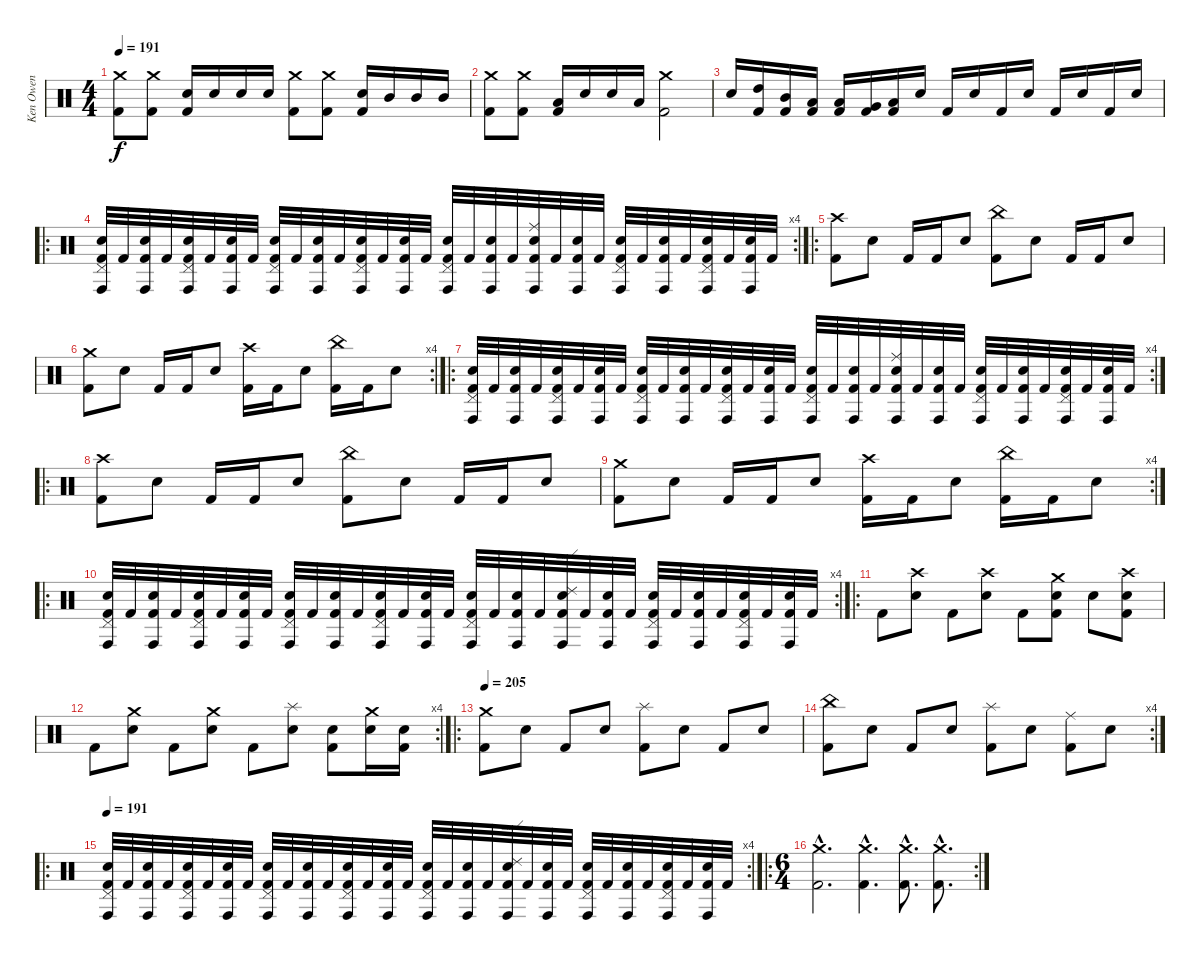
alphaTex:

\track ("Ken Owen" "Ken Owen") {instrument percussion}
\staff {score}
\articulation defaults
\ts (4 4)
\tempo 191
\clef neutral
\ks c
("Crash medium (hit)" "Kick (hit) 2").8{dy f} ("Crash medium (hit)" "Kick (hit) 2").8 ("Electric Snare (hit)" "Kick (hit) 2").16 "Electric Snare (hit)".16 "Electric Snare (hit)".16 "Electric Snare (hit)".16 ("Crash medium (hit)" "Kick (hit) 2").8 ("Crash medium (hit)" "Kick (hit) 2").8 ("Electric Snare (hit)" "Kick (hit) 2").16 "Mid Tom (hit)".16 "Mid Tom (hit)".16 "Mid Tom (hit)".16 |
("Crash medium (hit)" "Kick (hit) 2").8 ("Crash medium (hit)" "Kick (hit) 2").8 ("Low Tom (hit)" "Kick (hit) 2").16 "Electric Snare (hit)".16 "Electric Snare (hit)".16 "Low Tom (hit)".16 ("Crash medium (hit)" "Kick (hit) 2").2 |
"Electric Snare (hit)".16 ("High Tom (hit)" "Kick (hit) 2").16 ("Mid Tom (hit)" "Kick (hit) 2").16 ("Low Tom (hit)" "Kick (hit) 2").16 ("Low Tom (hit)" "Kick (hit) 2").16 ("Very Low Tom (hit)" "Kick (hit) 2").16 ("Low Floor Tom (hit)" "Kick (hit) 2").16 "Electric Snare (hit)".16 "Kick (hit) 2".16 "Electric Snare (hit)".16 "Kick (hit) 2".16 "Electric Snare (hit)".16 "Kick (hit) 2".16 "Electric Snare (hit)".16 "Kick (hit) 2".16 "Electric Snare (hit)".16 |
\ro
\rc 4
("Pedal Hi-Hat (hit)" "Electric Snare (hit)" "Conga high (hit)" "Kick (hit) 2").32 "Kick (hit) 2".32 ("Electric Snare (hit)" "Conga high (hit)" "Kick (hit) 2").32 "Kick (hit) 2".32 ("Pedal Hi-Hat (hit)" "Electric Snare (hit)" "Conga high (hit)" "Kick (hit) 2").32 "Kick (hit) 2".32 ("Electric Snare (hit)" "Conga high (hit)" "Kick (hit) 2").32 "Kick (hit) 2".32 ("Pedal Hi-Hat (hit)" "Electric Snare (hit)" "Conga high (hit)" "Kick (hit) 2").32 "Kick (hit) 2".32 ("Electric Snare (hit)" "Conga high (hit)" "Kick (hit) 2").32 "Kick (hit) 2".32 ("Pedal Hi-Hat (hit)" "Electric Snare (hit)" "Conga high (hit)" "Kick (hit) 2").32 "Kick (hit) 2".32 ("Electric Snare (hit)" "Conga high (hit)" "Kick (hit) 2").32 "Kick (hit) 2".32 ("Pedal Hi-Hat (hit)" "Electric Snare (hit)" "Conga high (hit)" "Kick (hit) 2").32 "Kick (hit) 2".32 ("Electric Snare (hit)" "Conga high (hit)" "Kick (hit) 2").32 "Kick (hit) 2".32 ("Ride (middle)" "Electric Snare (hit)" "Conga high (hit)" "Kick (hit) 2").32 "Kick (hit) 2".32 ("Electric Snare (hit)" "Conga high (hit)" "Kick (hit) 2").32 "Kick (hit) 2".32 ("Pedal Hi-Hat (hit)" "Electric Snare (hit)" "Conga high (hit)" "Kick (hit) 2").32 "Kick (hit) 2".32 ("Electric Snare (hit)" "Conga high (hit)" "Kick (hit) 2").32 "Kick (hit) 2".32 ("Pedal Hi-Hat (hit)" "Electric Snare (hit)" "Conga high (hit)" "Kick (hit) 2").32 "Kick (hit) 2".32 ("Electric Snare (hit)" "Conga high (hit)" "Kick (hit) 2").32 "Kick (hit) 2".32 |
\ro
("Crash high (hit)" "Kick (hit) 2").8 "Electric Snare (hit)".8 "Kick (hit) 2".16 "Kick (hit) 2".16 "Electric Snare (hit)".8 ("China (hit)" "Kick (hit) 2").8 "Electric Snare (hit)".8 "Kick (hit) 2".16 "Kick (hit) 2".16 "Electric Snare (hit)".8 |
\rc 4
("Crash medium (hit)" "Kick (hit) 2").8 "Electric Snare (hit)".8 "Kick (hit) 2".16 "Kick (hit) 2".16 "Electric Snare (hit)".8 ("Crash high (hit)" "Kick (hit) 2").16 "Kick (hit) 2".16 "Electric Snare (hit)".8 ("China (hit)" "Kick (hit) 2").16 "Kick (hit) 2".16 "Electric Snare (hit)".8 |
\ro
\rc 4
("Pedal Hi-Hat (hit)" "Electric Snare (hit)" "Conga high (hit)" "Kick (hit) 2").32 "Kick (hit) 2".32 ("Electric Snare (hit)" "Conga high (hit)" "Kick (hit) 2").32 "Kick (hit) 2".32 ("Pedal Hi-Hat (hit)" "Electric Snare (hit)" "Conga high (hit)" "Kick (hit) 2").32 "Kick (hit) 2".32 ("Electric Snare (hit)" "Conga high (hit)" "Kick (hit) 2").32 "Kick (hit) 2".32 ("Pedal Hi-Hat (hit)" "Electric Snare (hit)" "Conga high (hit)" "Kick (hit) 2").32 "Kick (hit) 2".32 ("Electric Snare (hit)" "Conga high (hit)" "Kick (hit) 2").32 "Kick (hit) 2".32 ("Pedal Hi-Hat (hit)" "Electric Snare (hit)" "Conga high (hit)" "Kick (hit) 2").32 "Kick (hit) 2".32 ("Electric Snare (hit)" "Conga high (hit)" "Kick (hit) 2").32 "Kick (hit) 2".32 ("Pedal Hi-Hat (hit)" "Electric Snare (hit)" "Conga high (hit)" "Kick (hit) 2").32 "Kick (hit) 2".32 ("Electric Snare (hit)" "Conga high (hit)" "Kick (hit) 2").32 "Kick (hit) 2".32 ("Ride (middle)" "Electric Snare (hit)" "Conga high (hit)" "Kick (hit) 2").32 "Kick (hit) 2".32 ("Electric Snare (hit)" "Conga high (hit)" "Kick (hit) 2").32 "Kick (hit) 2".32 ("Pedal Hi-Hat (hit)" "Electric Snare (hit)" "Conga high (hit)" "Kick (hit) 2").32 "Kick (hit) 2".32 ("Electric Snare (hit)" "Conga high (hit)" "Kick (hit) 2").32 "Kick (hit) 2".32 ("Pedal Hi-Hat (hit)" "Electric Snare (hit)" "Conga high (hit)" "Kick (hit) 2").32 "Kick (hit) 2".32 ("Electric Snare (hit)" "Conga high (hit)" "Kick (hit) 2").32 "Kick (hit) 2".32 |
\ro
("Crash high (hit)" "Kick (hit) 2").8 "Electric Snare (hit)".8 "Kick (hit) 2".16 "Kick (hit) 2".16 "Electric Snare (hit)".8 ("China (hit)" "Kick (hit) 2").8 "Electric Snare (hit)".8 "Kick (hit) 2".16 "Kick (hit) 2".16 "Electric Snare (hit)".8 |
\rc 4
("Crash medium (hit)" "Kick (hit) 2").8 "Electric Snare (hit)".8 "Kick (hit) 2".16 "Kick (hit) 2".16 "Electric Snare (hit)".8 ("Crash high (hit)" "Kick (hit) 2").16 "Kick (hit) 2".16 "Electric Snare (hit)".8 ("China (hit)" "Kick (hit) 2").16 "Kick (hit) 2".16 "Electric Snare (hit)".8 |
\ro
\rc 4
("Pedal Hi-Hat (hit)" "Electric Snare (hit)" "Conga high (hit)" "Kick (hit) 2").32 "Kick (hit) 2".32 ("Electric Snare (hit)" "Conga high (hit)" "Kick (hit) 2").32 "Kick (hit) 2".32 ("Pedal Hi-Hat (hit)" "Electric Snare (hit)" "Conga high (hit)" "Kick (hit) 2").32 "Kick (hit) 2".32 ("Electric Snare (hit)" "Conga high (hit)" "Kick (hit) 2").32 "Kick (hit) 2".32 ("Pedal Hi-Hat (hit)" "Electric Snare (hit)" "Conga high (hit)" "Kick (hit) 2").32 "Kick (hit) 2".32 ("Electric Snare (hit)" "Conga high (hit)" "Kick (hit) 2").32 "Kick (hit) 2".32 ("Pedal Hi-Hat (hit)" "Electric Snare (hit)" "Conga high (hit)" "Kick (hit) 2").32 "Kick (hit) 2".32 ("Electric Snare (hit)" "Conga high (hit)" "Kick (hit) 2").32 "Kick (hit) 2".32 ("Pedal Hi-Hat (hit)" "Electric Snare (hit)" "Conga high (hit)" "Kick (hit) 2").32 "Kick (hit) 2".32 ("Electric Snare (hit)" "Conga high (hit)" "Kick (hit) 2").32 "Kick (hit) 2".32 ("Ride (edge) 2" "Electric Snare (hit)" "Conga high (hit)" "Kick (hit) 2").32 "Kick (hit) 2".32 ("Electric Snare (hit)" "Conga high (hit)" "Kick (hit) 2").32 "Kick (hit) 2".32 ("Pedal Hi-Hat (hit)" "Electric Snare (hit)" "Conga high (hit)" "Kick (hit) 2").32 "Kick (hit) 2".32 ("Electric Snare (hit)" "Conga high (hit)" "Kick (hit) 2").32 "Kick (hit) 2".32 ("Pedal Hi-Hat (hit)" "Electric Snare (hit)" "Conga high (hit)" "Kick (hit) 2").32 "Kick (hit) 2".32 ("Electric Snare (hit)" "Conga high (hit)" "Kick (hit) 2").32 "Kick (hit) 2".32 |
\ro "Kick (hit) 2".8
("Crash high (hit)" "Electric Snare (hit)").8 "Kick (hit) 2".8 ("Crash high (hit)" "Electric Snare (hit)").8 "Kick (hit) 2".8 ("Crash medium (hit)" "Electric Snare (hit)" "Kick (hit) 2").8 "Electric Snare (hit)".8 ("Crash high (hit)" "Electric Snare (hit)" "Kick (hit) 2").8 |
\rc 4 "Kick (hit) 2".8
("Crash medium (hit)" "Electric Snare (hit)").8 "Kick (hit) 2".8 ("Crash medium (hit)" "Electric Snare (hit)").8 "Kick (hit) 2".8 ("Splash (hit)" "Electric Snare (hit)").8 ("Electric Snare (hit)" "Kick (hit) 2").8 ("Crash medium (hit)" "Electric Snare (hit)").16 ("Electric Snare (hit)" "Kick (hit) 2").16 |
\ro
\tempo 205
("Crash medium (hit)" "Kick (hit) 2").8 "Electric Snare (hit)".8 "Kick (hit) 2".8 "Electric Snare (hit)".8 ("Splash (hit)" "Kick (hit) 2").8 "Electric Snare (hit)".8 "Kick (hit) 2".8 "Electric Snare (hit)".8 |
\rc 4
("China (hit)" "Kick (hit) 2").8 "Electric Snare (hit)".8 "Kick (hit) 2".8 "Electric Snare (hit)".8 ("Splash (hit)" "Kick (hit) 2").8 "Electric Snare (hit)".8 ("Ride (middle)" "Kick (hit) 2").8 "Electric Snare (hit)".8 |
\ro
\rc 4
\tempo 191
("Pedal Hi-Hat (hit)" "Electric Snare (hit)" "Conga high (hit)" "Kick (hit) 2").32 "Kick (hit) 2".32 ("Electric Snare (hit)" "Conga high (hit)" "Kick (hit) 2").32 "Kick (hit) 2".32 ("Pedal Hi-Hat (hit)" "Electric Snare (hit)" "Conga high (hit)" "Kick (hit) 2").32 "Kick (hit) 2".32 ("Electric Snare (hit)" "Conga high (hit)" "Kick (hit) 2").32 "Kick (hit) 2".32 ("Pedal Hi-Hat (hit)" "Electric Snare (hit)" "Conga high (hit)" "Kick (hit) 2").32 "Kick (hit) 2".32 ("Electric Snare (hit)" "Conga high (hit)" "Kick (hit) 2").32 "Kick (hit) 2".32 ("Pedal Hi-Hat (hit)" "Electric Snare (hit)" "Conga high (hit)" "Kick (hit) 2").32 "Kick (hit) 2".32 ("Electric Snare (hit)" "Conga high (hit)" "Kick (hit) 2").32 "Kick (hit) 2".32 ("Pedal Hi-Hat (hit)" "Electric Snare (hit)" "Conga high (hit)" "Kick (hit) 2").32 "Kick (hit) 2".32 ("Electric Snare (hit)" "Conga high (hit)" "Kick (hit) 2").32 "Kick (hit) 2".32 ("Ride (edge) 2" "Electric Snare (hit)" "Conga high (hit)" "Kick (hit) 2").32 "Kick (hit) 2".32 ("Electric Snare (hit)" "Conga high (hit)" "Kick (hit) 2").32 "Kick (hit) 2".32 ("Pedal Hi-Hat (hit)" "Electric Snare (hit)" "Conga high (hit)" "Kick (hit) 2").32 "Kick (hit) 2".32 ("Electric Snare (hit)" "Conga high (hit)" "Kick (hit) 2").32 "Kick (hit) 2".32 ("Pedal Hi-Hat (hit)" "Electric Snare (hit)" "Conga high (hit)" "Kick (hit) 2").32 "Kick (hit) 2".32 ("Electric Snare (hit)" "Conga high (hit)" "Kick (hit) 2").32 "Kick (hit) 2".32 |
\ro
\rc 2
\ts (6 4)
("Crash medium (hit)"{hac} "Kick (hit) 2"{hac}).2{d} ("Crash medium (hit)"{hac} "Kick (hit) 2"{hac}).4{d} ("Crash medium (hit)"{hac} "Kick (hit) 2"{hac}).8{d} ("Crash medium (hit)"{hac} "Kick (hit) 2"{hac}).8{d}
